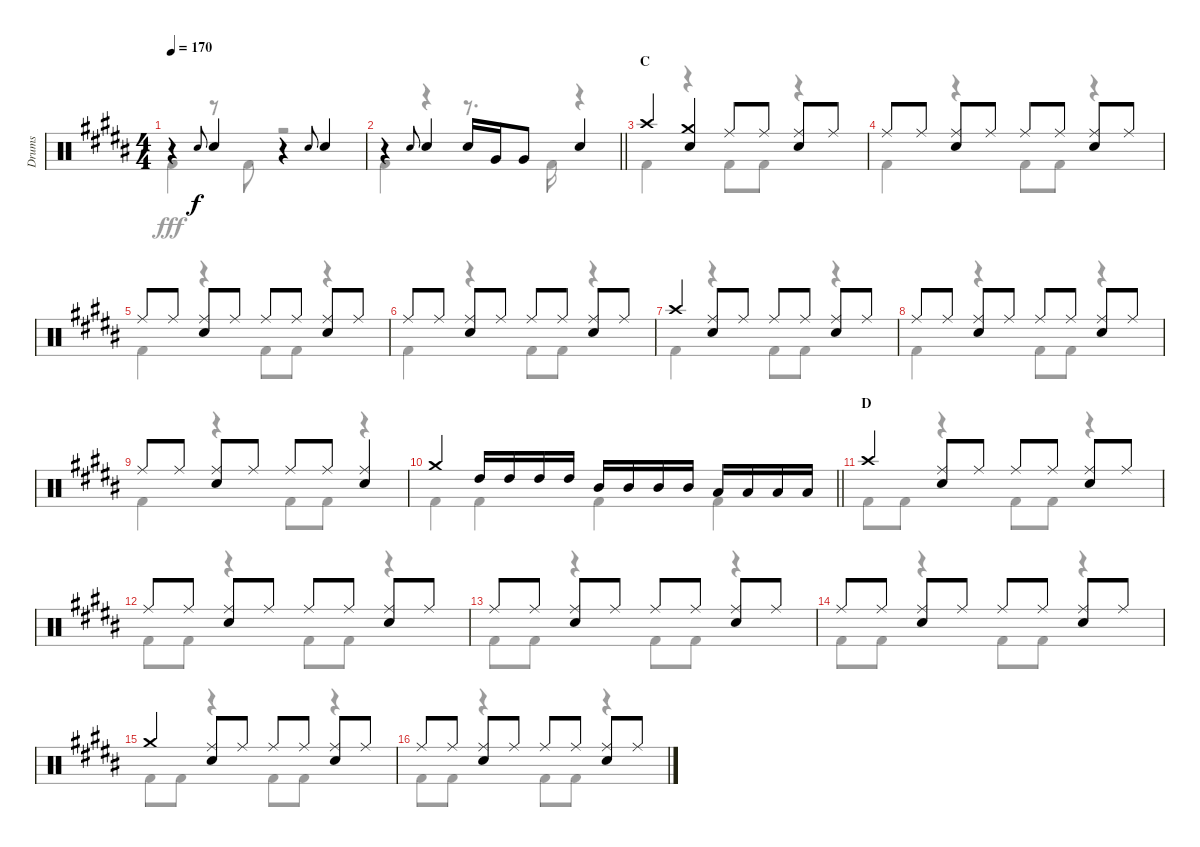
\track ("Drums" "Drums") {instrument percussion}
\staff {score}
\articulation defaults
\voice
\ts (4 4)
\tempo 170
\clef neutral
\ks b
r.4{dy f} "Snare (hit) 2".8{gr onbeat} "Snare (hit) 2".4 r.4 "Snare (hit) 2".8{gr onbeat} "Snare (hit) 2".4 |
\barLineRight lightlight
r.4 "Snare (hit) 2".8{gr onbeat} "Snare (hit) 2".4 "Snare (hit) 2".16 "Very Low Tom (hit)".16 "Very Low Tom (hit)".8 "Snare (hit) 2".4 |
\section ("" "C")
"Crash high (hit)".4 ("Crash medium (hit)" "Snare (hit) 2").4 "Ride (middle)".8 "Ride (middle)".8 ("Ride (middle)" "Snare (hit) 2").8 "Ride (middle)".8 |
"Ride (middle)".8 "Ride (middle)".8 ("Ride (middle)" "Snare (hit) 2").8 "Ride (middle)".8 "Ride (middle)".8 "Ride (middle)".8 ("Ride (middle)" "Snare (hit) 2").8 "Ride (middle)".8 |
"Ride (middle)".8 "Ride (middle)".8 ("Ride (middle)" "Snare (hit) 2").8 "Ride (middle)".8 "Ride (middle)".8 "Ride (middle)".8 ("Ride (middle)" "Snare (hit) 2").8 "Ride (middle)".8 |
"Ride (middle)".8 "Ride (middle)".8 ("Ride (middle)" "Snare (hit) 2").8 "Ride (middle)".8 "Ride (middle)".8 "Ride (middle)".8 ("Ride (middle)" "Snare (hit) 2").8 "Ride (middle)".8 |
"Crash high (hit)".4 ("Ride (middle)" "Snare (hit) 2").8 "Ride (middle)".8 "Ride (middle)".8 "Ride (middle)".8 ("Ride (middle)" "Snare (hit) 2").8 "Ride (middle)".8 |
"Ride (middle)".8 "Ride (middle)".8 ("Ride (middle)" "Snare (hit) 2").8 "Ride (middle)".8 "Ride (middle)".8 "Ride (middle)".8 ("Ride (middle)" "Snare (hit) 2").8 "Ride (middle)".8 |
"Ride (middle)".8 "Ride (middle)".8 ("Ride (middle)" "Snare (hit) 2").8 "Ride (middle)".8 "Ride (middle)".8 "Ride (middle)".8 ("Ride (middle)" "Snare (hit) 2").4 |
\barLineRight lightlight "Crash medium (hit)".4 "High Tom (hit)".16 "High Tom (hit)".16 "High Tom (hit)".16 "High Tom (hit)".16 "Mid Tom (hit)".16 "Mid Tom (hit)".16 "Mid Tom (hit)".16 "Mid Tom (hit)".16 "Low Tom (hit)".16 "Low Tom (hit)".16 "Low Tom (hit)".16 "Low Tom (hit)".16
|
\section ("" "D")
"Crash high (hit)".4 ("Ride (middle)" "Snare (hit) 2").8 "Ride (middle)".8 "Ride (middle)".8 "Ride (middle)".8 ("Ride (middle)" "Snare (hit) 2").8 "Ride (middle)".8 |
"Ride (middle)".8 "Ride (middle)".8 ("Ride (middle)" "Snare (hit) 2").8 "Ride (middle)".8 "Ride (middle)".8 "Ride (middle)".8 ("Ride (middle)" "Snare (hit) 2").8 "Ride (middle)".8 |
"Ride (middle)".8 "Ride (middle)".8 ("Ride (middle)" "Snare (hit) 2").8 "Ride (middle)".8 "Ride (middle)".8 "Ride (middle)".8 ("Ride (middle)" "Snare (hit) 2").8 "Ride (middle)".8 |
"Ride (middle)".8 "Ride (middle)".8 ("Ride (middle)" "Snare (hit) 2").8 "Ride (middle)".8 "Ride (middle)".8 "Ride (middle)".8 ("Ride (middle)" "Snare (hit) 2").8 "Ride (middle)".8 |
"Crash medium (hit)".4 ("Ride (middle)" "Snare (hit) 2").8 "Ride (middle)".8 "Ride (middle)".8 "Ride (middle)".8 ("Ride (middle)" "Snare (hit) 2").8 "Ride (middle)".8 |
"Ride (middle)".8 "Ride (middle)".8 ("Ride (middle)" "Snare (hit) 2").8 "Ride (middle)".8 "Ride (middle)".8 "Ride (middle)".8 ("Ride (middle)" "Snare (hit) 2").8 "Ride (middle)".8
\voice
\clef neutral
\ottava regular
\simile none
\ks b "Kick (hit) 2".4{dy fff}
r.8 "Kick (hit) 2".8 r.2 |
\barLineRight lightlight "Kick (hit) 2".4
r.4 r.8{d} "Kick (hit) 2".16 r.4 |
"Kick (hit) 2".4 r.4 "Kick (hit) 2".8 "Kick (hit) 2".8 r.4 |
"Kick (hit) 2".4 r.4 "Kick (hit) 2".8 "Kick (hit) 2".8 r.4 |
"Kick (hit) 2".4 r.4 "Kick (hit) 2".8 "Kick (hit) 2".8 r.4 |
"Kick (hit) 2".4 r.4 "Kick (hit) 2".8 "Kick (hit) 2".8 r.4 |
"Kick (hit) 2".4 r.4 "Kick (hit) 2".8 "Kick (hit) 2".8 r.4 |
"Kick (hit) 2".4 r.4 "Kick (hit) 2".8 "Kick (hit) 2".8 r.4 |
"Kick (hit) 2".4 r.4 "Kick (hit) 2".8 "Kick (hit) 2".8 r.4 |
\barLineRight lightlight "Kick (hit) 2".4 "Kick (hit) 2".4 "Kick (hit) 2".4 "Kick (hit) 2".4
|
"Kick (hit) 2".8 "Kick (hit) 2".8 r.4 "Kick (hit) 2".8 "Kick (hit) 2".8 r.4 |
"Kick (hit) 2".8 "Kick (hit) 2".8 r.4 "Kick (hit) 2".8 "Kick (hit) 2".8 r.4 |
"Kick (hit) 2".8 "Kick (hit) 2".8 r.4 "Kick (hit) 2".8 "Kick (hit) 2".8 r.4 |
"Kick (hit) 2".8 "Kick (hit) 2".8 r.4 "Kick (hit) 2".8 "Kick (hit) 2".8 r.4 |
"Kick (hit) 2".8 "Kick (hit) 2".8 r.4 "Kick (hit) 2".8 "Kick (hit) 2".8 r.4 |
"Kick (hit) 2".8 "Kick (hit) 2".8 r.4 "Kick (hit) 2".8 "Kick (hit) 2".8 r.4
